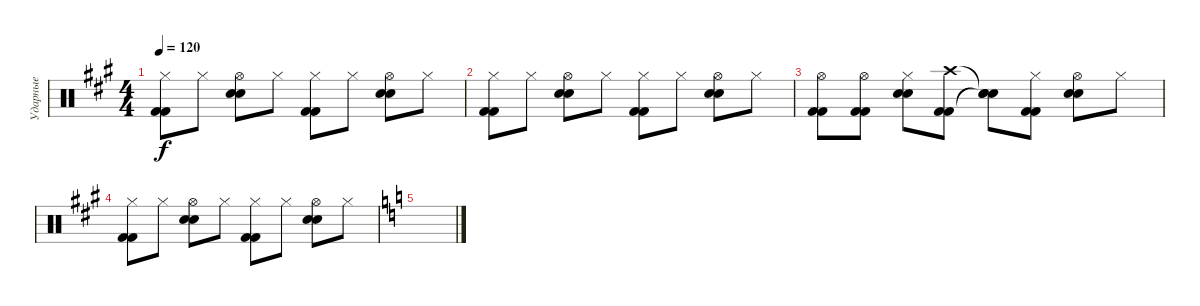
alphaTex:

\track ("Ударные" "Ударные") {instrument percussion}
\staff {score}
\articulation defaults
\ts (4 4)
\tempo 120
\clef neutral
\ks f#minor
("Hi-Hat (closed)" "Kick (hit) 2" "Kick (hit) 2").8{dy f} "Hi-Hat (closed)".8 ("Hi-Hat (open)" "Electric Snare (hit)" "Electric Snare (hit)").8 "Hi-Hat (closed)".8 ("Hi-Hat (closed)" "Kick (hit) 2" "Kick (hit) 2").8 "Hi-Hat (closed)".8 ("Hi-Hat (open)" "Electric Snare (hit)" "Electric Snare (hit)").8 "Hi-Hat (closed)".8 |
("Hi-Hat (closed)" "Kick (hit) 2" "Kick (hit) 2").8 "Hi-Hat (closed)".8 ("Hi-Hat (open)" "Electric Snare (hit)" "Electric Snare (hit)").8 "Hi-Hat (closed)".8 ("Hi-Hat (closed)" "Kick (hit) 2" "Kick (hit) 2").8 "Hi-Hat (closed)".8 ("Hi-Hat (open)" "Electric Snare (hit)" "Electric Snare (hit)").8 "Hi-Hat (closed)".8 |
("Hi-Hat (open)" "Kick (hit) 2" "Kick (hit) 2").8 ("Hi-Hat (open)" "Kick (hit) 2" "Kick (hit) 2").8 ("Hi-Hat (closed)" "Electric Snare (hit)" "Electric Snare (hit)").8 ("Crash high (hit)" "Kick (hit) 2" "Kick (hit) 2").8 ("Snare (hit)"{t} "Snare (hit)"{t} "Snare (hit)"{t}).8 ("Hi-Hat (closed)" "Kick (hit) 2" "Kick (hit) 2").8 ("Hi-Hat (open)" "Electric Snare (hit)" "Electric Snare (hit)").8 "Hi-Hat (closed)".8 |
("Hi-Hat (closed)" "Kick (hit) 2" "Kick (hit) 2").8 "Hi-Hat (closed)".8 ("Hi-Hat (open)" "Electric Snare (hit)" "Electric Snare (hit)").8 "Hi-Hat (closed)".8 ("Hi-Hat (closed)" "Kick (hit) 2" "Kick (hit) 2").8 "Hi-Hat (closed)".8 ("Hi-Hat (open)" "Electric Snare (hit)" "Electric Snare (hit)").8 "Hi-Hat (closed)".8 |
\ks c
